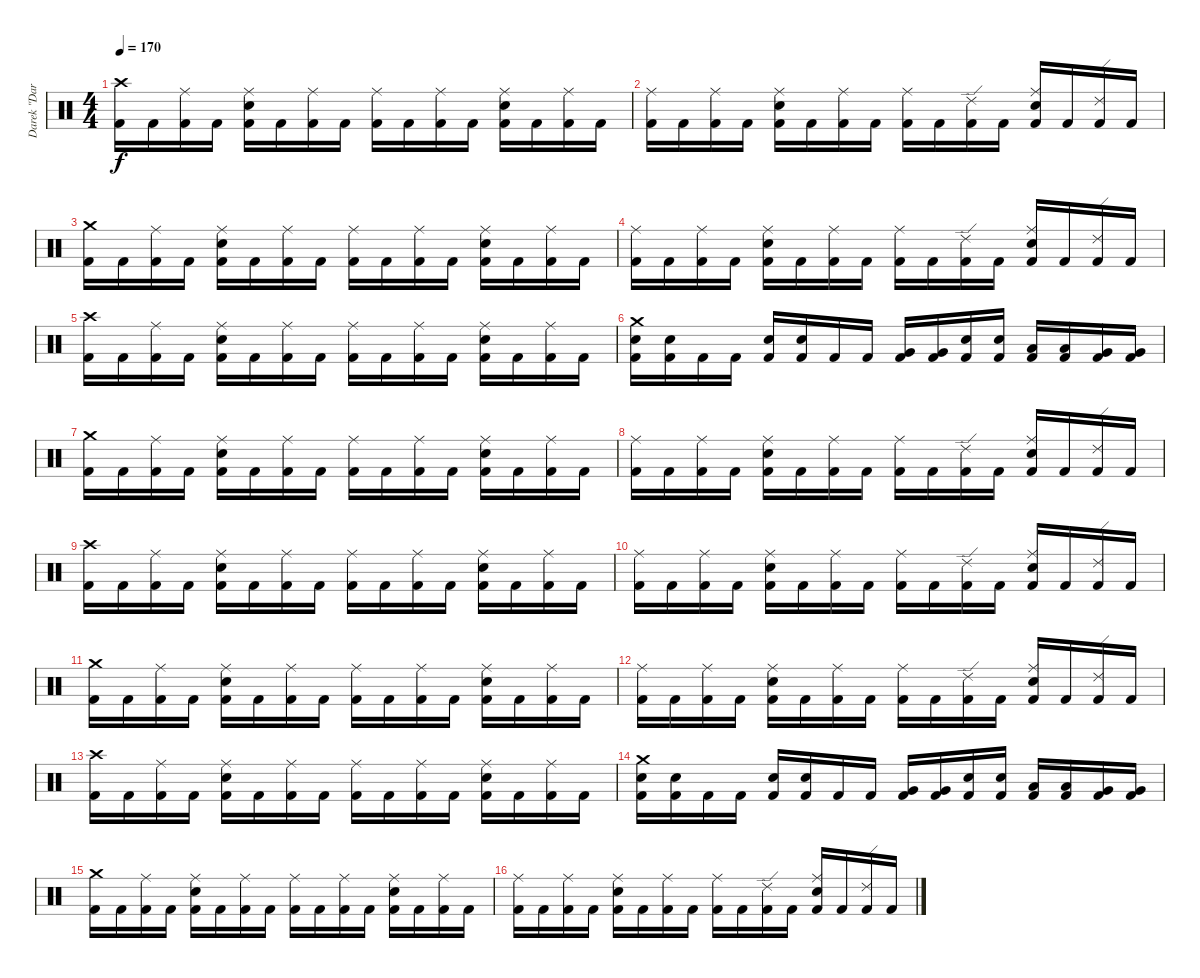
\track ("Darek \"Daray\" Brzozowski " "Darek \"Dar") {instrument percussion}
\staff {score}
\articulation defaults
\ts (4 4)
\tempo 170
\clef neutral
\ks c
("Crash high (hit)" "Kick (hit) 2").16{dy f} "Kick (hit) 2".16 ("Ride (middle)" "Kick (hit) 2").16 "Kick (hit) 2".16 ("Ride (middle)" "Electric Snare (hit)" "Kick (hit) 2").16 "Kick (hit) 2".16 ("Ride (middle)" "Kick (hit) 2").16 "Kick (hit) 2".16 ("Ride (middle)" "Kick (hit) 2").16 "Kick (hit) 2".16 ("Ride (middle)" "Kick (hit) 2").16 "Kick (hit) 2".16 ("Ride (middle)" "Electric Snare (hit)" "Kick (hit) 2").16 "Kick (hit) 2".16 ("Ride (middle)" "Kick (hit) 2").16 "Kick (hit) 2".16 |
("Ride (middle)" "Kick (hit) 2").16 "Kick (hit) 2".16 ("Ride (middle)" "Kick (hit) 2").16 "Kick (hit) 2".16 ("Ride (middle)" "Electric Snare (hit)" "Kick (hit) 2").16 "Kick (hit) 2".16 ("Ride (middle)" "Kick (hit) 2").16 "Kick (hit) 2".16 ("Ride (middle)" "Kick (hit) 2").16 "Kick (hit) 2".16 ("Ride (edge) 2" "Kick (hit) 2").16 "Kick (hit) 2".16 ("Ride (middle)" "Electric Snare (hit)" "Kick (hit) 2").16 "Kick (hit) 2".16 ("Ride (edge) 2" "Kick (hit) 2").16 "Kick (hit) 2".16 |
("Crash medium (hit)" "Kick (hit) 2").16 "Kick (hit) 2".16 ("Ride (middle)" "Kick (hit) 2").16 "Kick (hit) 2".16 ("Ride (middle)" "Electric Snare (hit)" "Kick (hit) 2").16 "Kick (hit) 2".16 ("Ride (middle)" "Kick (hit) 2").16 "Kick (hit) 2".16 ("Ride (middle)" "Kick (hit) 2").16 "Kick (hit) 2".16 ("Ride (middle)" "Kick (hit) 2").16 "Kick (hit) 2".16 ("Ride (middle)" "Electric Snare (hit)" "Kick (hit) 2").16 "Kick (hit) 2".16 ("Ride (middle)" "Kick (hit) 2").16 "Kick (hit) 2".16 |
("Ride (middle)" "Kick (hit) 2").16 "Kick (hit) 2".16 ("Ride (middle)" "Kick (hit) 2").16 "Kick (hit) 2".16 ("Ride (middle)" "Electric Snare (hit)" "Kick (hit) 2").16 "Kick (hit) 2".16 ("Ride (middle)" "Kick (hit) 2").16 "Kick (hit) 2".16 ("Ride (middle)" "Kick (hit) 2").16 "Kick (hit) 2".16 ("Ride (edge) 2" "Kick (hit) 2").16 "Kick (hit) 2".16 ("Ride (middle)" "Electric Snare (hit)" "Kick (hit) 2").16 "Kick (hit) 2".16 ("Ride (edge) 2" "Kick (hit) 2").16 "Kick (hit) 2".16 |
("Crash high (hit)" "Kick (hit) 2").16 "Kick (hit) 2".16 ("Ride (middle)" "Kick (hit) 2").16 "Kick (hit) 2".16 ("Ride (middle)" "Electric Snare (hit)" "Kick (hit) 2").16 "Kick (hit) 2".16 ("Ride (middle)" "Kick (hit) 2").16 "Kick (hit) 2".16 ("Ride (middle)" "Kick (hit) 2").16 "Kick (hit) 2".16 ("Ride (middle)" "Kick (hit) 2").16 "Kick (hit) 2".16 ("Ride (middle)" "Electric Snare (hit)" "Kick (hit) 2").16 "Kick (hit) 2".16 ("Ride (middle)" "Kick (hit) 2").16 "Kick (hit) 2".16 |
("Crash medium (hit)" "Electric Snare (hit)" "Kick (hit) 2").16 ("Electric Snare (hit)" "Kick (hit) 2").16 "Kick (hit) 2".16 "Kick (hit) 2".16 ("Electric Snare (hit)" "Kick (hit) 2").16 ("Electric Snare (hit)" "Kick (hit) 2").16 "Kick (hit) 2".16 "Kick (hit) 2".16 ("Very Low Tom (hit)" "Kick (hit) 2").16 ("Very Low Tom (hit)" "Kick (hit) 2").16 ("Electric Snare (hit)" "Kick (hit) 2").16 ("Electric Snare (hit)" "Kick (hit) 2").16 ("Low Tom (hit)" "Kick (hit) 2").16 ("Low Tom (hit)" "Kick (hit) 2").16 ("Very Low Tom (hit)" "Kick (hit) 2").16 ("Very Low Tom (hit)" "Kick (hit) 2").16 |
("Crash medium (hit)" "Kick (hit) 2").16 "Kick (hit) 2".16 ("Ride (middle)" "Kick (hit) 2").16 "Kick (hit) 2".16 ("Ride (middle)" "Electric Snare (hit)" "Kick (hit) 2").16 "Kick (hit) 2".16 ("Ride (middle)" "Kick (hit) 2").16 "Kick (hit) 2".16 ("Ride (middle)" "Kick (hit) 2").16 "Kick (hit) 2".16 ("Ride (middle)" "Kick (hit) 2").16 "Kick (hit) 2".16 ("Ride (middle)" "Electric Snare (hit)" "Kick (hit) 2").16 "Kick (hit) 2".16 ("Ride (middle)" "Kick (hit) 2").16 "Kick (hit) 2".16 |
("Ride (middle)" "Kick (hit) 2").16 "Kick (hit) 2".16 ("Ride (middle)" "Kick (hit) 2").16 "Kick (hit) 2".16 ("Ride (middle)" "Electric Snare (hit)" "Kick (hit) 2").16 "Kick (hit) 2".16 ("Ride (middle)" "Kick (hit) 2").16 "Kick (hit) 2".16 ("Ride (middle)" "Kick (hit) 2").16 "Kick (hit) 2".16 ("Ride (edge) 2" "Kick (hit) 2").16 "Kick (hit) 2".16 ("Ride (middle)" "Electric Snare (hit)" "Kick (hit) 2").16 "Kick (hit) 2".16 ("Ride (edge) 2" "Kick (hit) 2").16 "Kick (hit) 2".16 |
("Crash high (hit)" "Kick (hit) 2").16 "Kick (hit) 2".16 ("Ride (middle)" "Kick (hit) 2").16 "Kick (hit) 2".16 ("Ride (middle)" "Electric Snare (hit)" "Kick (hit) 2").16 "Kick (hit) 2".16 ("Ride (middle)" "Kick (hit) 2").16 "Kick (hit) 2".16 ("Ride (middle)" "Kick (hit) 2").16 "Kick (hit) 2".16 ("Ride (middle)" "Kick (hit) 2").16 "Kick (hit) 2".16 ("Ride (middle)" "Electric Snare (hit)" "Kick (hit) 2").16 "Kick (hit) 2".16 ("Ride (middle)" "Kick (hit) 2").16 "Kick (hit) 2".16 |
("Ride (middle)" "Kick (hit) 2").16 "Kick (hit) 2".16 ("Ride (middle)" "Kick (hit) 2").16 "Kick (hit) 2".16 ("Ride (middle)" "Electric Snare (hit)" "Kick (hit) 2").16 "Kick (hit) 2".16 ("Ride (middle)" "Kick (hit) 2").16 "Kick (hit) 2".16 ("Ride (middle)" "Kick (hit) 2").16 "Kick (hit) 2".16 ("Ride (edge) 2" "Kick (hit) 2").16 "Kick (hit) 2".16 ("Ride (middle)" "Electric Snare (hit)" "Kick (hit) 2").16 "Kick (hit) 2".16 ("Ride (edge) 2" "Kick (hit) 2").16 "Kick (hit) 2".16 |
("Crash medium (hit)" "Kick (hit) 2").16 "Kick (hit) 2".16 ("Ride (middle)" "Kick (hit) 2").16 "Kick (hit) 2".16 ("Ride (middle)" "Electric Snare (hit)" "Kick (hit) 2").16 "Kick (hit) 2".16 ("Ride (middle)" "Kick (hit) 2").16 "Kick (hit) 2".16 ("Ride (middle)" "Kick (hit) 2").16 "Kick (hit) 2".16 ("Ride (middle)" "Kick (hit) 2").16 "Kick (hit) 2".16 ("Ride (middle)" "Electric Snare (hit)" "Kick (hit) 2").16 "Kick (hit) 2".16 ("Ride (middle)" "Kick (hit) 2").16 "Kick (hit) 2".16 |
("Ride (middle)" "Kick (hit) 2").16 "Kick (hit) 2".16 ("Ride (middle)" "Kick (hit) 2").16 "Kick (hit) 2".16 ("Ride (middle)" "Electric Snare (hit)" "Kick (hit) 2").16 "Kick (hit) 2".16 ("Ride (middle)" "Kick (hit) 2").16 "Kick (hit) 2".16 ("Ride (middle)" "Kick (hit) 2").16 "Kick (hit) 2".16 ("Ride (edge) 2" "Kick (hit) 2").16 "Kick (hit) 2".16 ("Ride (middle)" "Electric Snare (hit)" "Kick (hit) 2").16 "Kick (hit) 2".16 ("Ride (edge) 2" "Kick (hit) 2").16 "Kick (hit) 2".16 |
("Crash high (hit)" "Kick (hit) 2").16 "Kick (hit) 2".16 ("Ride (middle)" "Kick (hit) 2").16 "Kick (hit) 2".16 ("Ride (middle)" "Electric Snare (hit)" "Kick (hit) 2").16 "Kick (hit) 2".16 ("Ride (middle)" "Kick (hit) 2").16 "Kick (hit) 2".16 ("Ride (middle)" "Kick (hit) 2").16 "Kick (hit) 2".16 ("Ride (middle)" "Kick (hit) 2").16 "Kick (hit) 2".16 ("Ride (middle)" "Electric Snare (hit)" "Kick (hit) 2").16 "Kick (hit) 2".16 ("Ride (middle)" "Kick (hit) 2").16 "Kick (hit) 2".16 |
("Crash medium (hit)" "Electric Snare (hit)" "Kick (hit) 2").16 ("Electric Snare (hit)" "Kick (hit) 2").16 "Kick (hit) 2".16 "Kick (hit) 2".16 ("Electric Snare (hit)" "Kick (hit) 2").16 ("Electric Snare (hit)" "Kick (hit) 2").16 "Kick (hit) 2".16 "Kick (hit) 2".16 ("Very Low Tom (hit)" "Kick (hit) 2").16 ("Very Low Tom (hit)" "Kick (hit) 2").16 ("Electric Snare (hit)" "Kick (hit) 2").16 ("Electric Snare (hit)" "Kick (hit) 2").16 ("Low Tom (hit)" "Kick (hit) 2").16 ("Low Tom (hit)" "Kick (hit) 2").16 ("Very Low Tom (hit)" "Kick (hit) 2").16 ("Very Low Tom (hit)" "Kick (hit) 2").16 |
("Crash medium (hit)" "Kick (hit) 2").16 "Kick (hit) 2".16 ("Ride (middle)" "Kick (hit) 2").16 "Kick (hit) 2".16 ("Ride (middle)" "Electric Snare (hit)" "Kick (hit) 2").16 "Kick (hit) 2".16 ("Ride (middle)" "Kick (hit) 2").16 "Kick (hit) 2".16 ("Ride (middle)" "Kick (hit) 2").16 "Kick (hit) 2".16 ("Ride (middle)" "Kick (hit) 2").16 "Kick (hit) 2".16 ("Ride (middle)" "Electric Snare (hit)" "Kick (hit) 2").16 "Kick (hit) 2".16 ("Ride (middle)" "Kick (hit) 2").16 "Kick (hit) 2".16 |
("Ride (middle)" "Kick (hit) 2").16 "Kick (hit) 2".16 ("Ride (middle)" "Kick (hit) 2").16 "Kick (hit) 2".16 ("Ride (middle)" "Electric Snare (hit)" "Kick (hit) 2").16 "Kick (hit) 2".16 ("Ride (middle)" "Kick (hit) 2").16 "Kick (hit) 2".16 ("Ride (middle)" "Kick (hit) 2").16 "Kick (hit) 2".16 ("Ride (edge) 2" "Kick (hit) 2").16 "Kick (hit) 2".16 ("Ride (middle)" "Electric Snare (hit)" "Kick (hit) 2").16 "Kick (hit) 2".16 ("Ride (edge) 2" "Kick (hit) 2").16 "Kick (hit) 2".16
